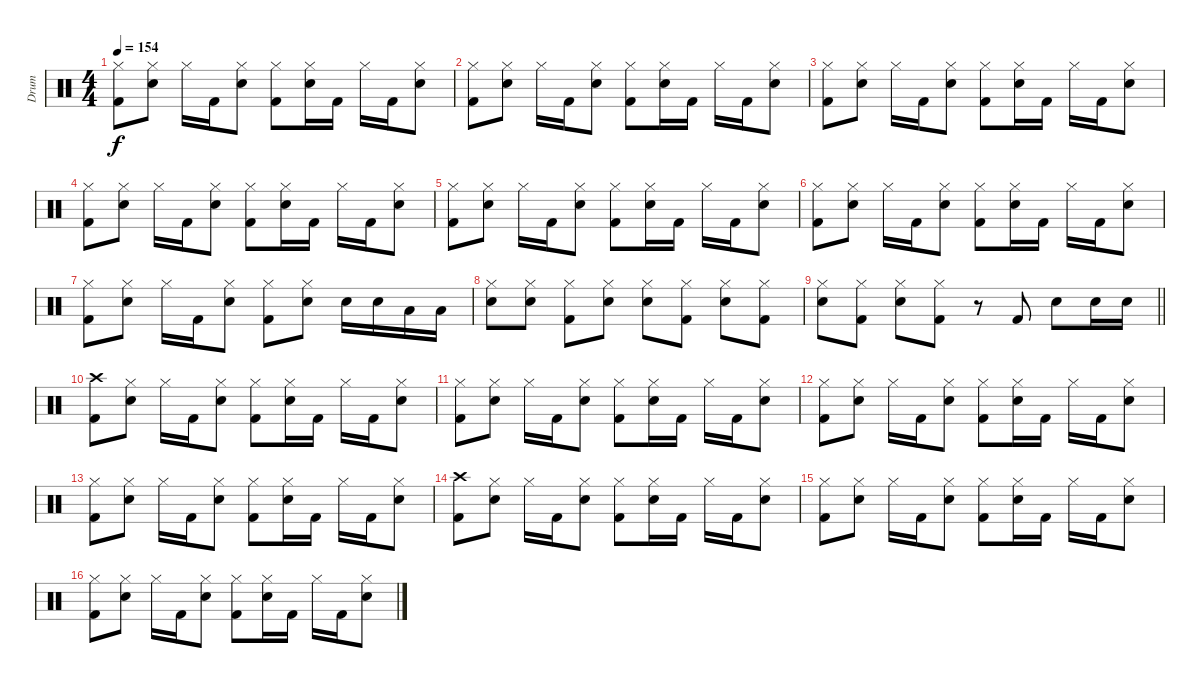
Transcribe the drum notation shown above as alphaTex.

\track ("Drum" "Drum") {instrument percussion}
\staff {score}
\articulation defaults
\ts (4 4)
\tempo 154
\clef neutral
\ks c
("Hi-Hat (closed)" "Kick (hit) 2").8{dy f} ("Hi-Hat (closed)" "Snare (hit) 2").8 "Hi-Hat (closed)".16 "Kick (hit) 2".16 ("Hi-Hat (closed)" "Snare (hit) 2").8 ("Hi-Hat (closed)" "Kick (hit) 2").8 ("Hi-Hat (closed)" "Snare (hit) 2").16 "Kick (hit) 2".16 "Hi-Hat (closed)".16 "Kick (hit) 2".16 ("Hi-Hat (closed)" "Snare (hit) 2").8 |
("Hi-Hat (closed)" "Kick (hit) 2").8 ("Hi-Hat (closed)" "Snare (hit) 2").8 "Hi-Hat (closed)".16 "Kick (hit) 2".16 ("Hi-Hat (closed)" "Snare (hit) 2").8 ("Hi-Hat (closed)" "Kick (hit) 2").8 ("Hi-Hat (closed)" "Snare (hit) 2").16 "Kick (hit) 2".16 "Hi-Hat (closed)".16 "Kick (hit) 2".16 ("Hi-Hat (closed)" "Snare (hit) 2").8 |
("Hi-Hat (closed)" "Kick (hit) 2").8 ("Hi-Hat (closed)" "Snare (hit) 2").8 "Hi-Hat (closed)".16 "Kick (hit) 2".16 ("Hi-Hat (closed)" "Snare (hit) 2").8 ("Hi-Hat (closed)" "Kick (hit) 2").8 ("Hi-Hat (closed)" "Snare (hit) 2").16 "Kick (hit) 2".16 "Hi-Hat (closed)".16 "Kick (hit) 2".16 ("Hi-Hat (closed)" "Snare (hit) 2").8 |
("Hi-Hat (closed)" "Kick (hit) 2").8 ("Hi-Hat (closed)" "Snare (hit) 2").8 "Hi-Hat (closed)".16 "Kick (hit) 2".16 ("Hi-Hat (closed)" "Snare (hit) 2").8 ("Hi-Hat (closed)" "Kick (hit) 2").8 ("Hi-Hat (closed)" "Snare (hit) 2").16 "Kick (hit) 2".16 "Hi-Hat (closed)".16 "Kick (hit) 2".16 ("Hi-Hat (closed)" "Snare (hit) 2").8 |
("Hi-Hat (closed)" "Kick (hit) 2").8 ("Hi-Hat (closed)" "Snare (hit) 2").8 "Hi-Hat (closed)".16 "Kick (hit) 2".16 ("Hi-Hat (closed)" "Snare (hit) 2").8 ("Hi-Hat (closed)" "Kick (hit) 2").8 ("Hi-Hat (closed)" "Snare (hit) 2").16 "Kick (hit) 2".16 "Hi-Hat (closed)".16 "Kick (hit) 2".16 ("Hi-Hat (closed)" "Snare (hit) 2").8 |
("Hi-Hat (closed)" "Kick (hit) 2").8 ("Hi-Hat (closed)" "Snare (hit) 2").8 "Hi-Hat (closed)".16 "Kick (hit) 2".16 ("Hi-Hat (closed)" "Snare (hit) 2").8 ("Hi-Hat (closed)" "Kick (hit) 2").8 ("Hi-Hat (closed)" "Snare (hit) 2").16 "Kick (hit) 2".16 "Hi-Hat (closed)".16 "Kick (hit) 2".16 ("Hi-Hat (closed)" "Snare (hit) 2").8 |
("Hi-Hat (closed)" "Kick (hit) 2").8 ("Hi-Hat (closed)" "Snare (hit) 2").8 "Hi-Hat (closed)".16 "Kick (hit) 2".16 ("Hi-Hat (closed)" "Snare (hit) 2").8 ("Hi-Hat (closed)" "Kick (hit) 2").8 ("Hi-Hat (closed)" "Snare (hit) 2").8 "Snare (hit) 2".16 "Snare (hit) 2".16 "Low Tom (hit)".16 "Low Tom (hit)".16 |
("Hi-Hat (closed)" "Snare (hit) 2").8 ("Hi-Hat (closed)" "Snare (hit) 2").8 ("Hi-Hat (closed)" "Kick (hit) 2").8 ("Hi-Hat (closed)" "Snare (hit) 2").8 ("Hi-Hat (closed)" "Snare (hit) 2").8 ("Hi-Hat (closed)" "Kick (hit) 2").8 ("Hi-Hat (closed)" "Snare (hit) 2").8 ("Hi-Hat (closed)" "Kick (hit) 2").8 |
\barLineRight lightlight
("Hi-Hat (closed)" "Snare (hit) 2").8 ("Hi-Hat (closed)" "Kick (hit) 2").8 ("Hi-Hat (closed)" "Snare (hit) 2").8 ("Hi-Hat (closed)" "Kick (hit) 2").8 r.8 "Kick (hit) 2".8 "Snare (hit) 2".8 "Snare (hit) 2".16 "Snare (hit) 2".16 |
("Crash high (hit)" "Kick (hit) 2").8 ("Hi-Hat (closed)" "Snare (hit) 2").8 "Hi-Hat (closed)".16 "Kick (hit) 2".16 ("Hi-Hat (closed)" "Snare (hit) 2").8 ("Hi-Hat (closed)" "Kick (hit) 2").8 ("Hi-Hat (closed)" "Snare (hit) 2").16 "Kick (hit) 2".16 "Hi-Hat (closed)".16 "Kick (hit) 2".16 ("Hi-Hat (closed)" "Snare (hit) 2").8 |
("Hi-Hat (closed)" "Kick (hit) 2").8 ("Hi-Hat (closed)" "Snare (hit) 2").8 "Hi-Hat (closed)".16 "Kick (hit) 2".16 ("Hi-Hat (closed)" "Snare (hit) 2").8 ("Hi-Hat (closed)" "Kick (hit) 2").8 ("Hi-Hat (closed)" "Snare (hit) 2").16 "Kick (hit) 2".16 "Hi-Hat (closed)".16 "Kick (hit) 2".16 ("Hi-Hat (closed)" "Snare (hit) 2").8 |
("Hi-Hat (closed)" "Kick (hit) 2").8 ("Hi-Hat (closed)" "Snare (hit) 2").8 "Hi-Hat (closed)".16 "Kick (hit) 2".16 ("Hi-Hat (closed)" "Snare (hit) 2").8 ("Hi-Hat (closed)" "Kick (hit) 2").8 ("Hi-Hat (closed)" "Snare (hit) 2").16 "Kick (hit) 2".16 "Hi-Hat (closed)".16 "Kick (hit) 2".16 ("Hi-Hat (closed)" "Snare (hit) 2").8 |
("Hi-Hat (closed)" "Kick (hit) 2").8 ("Hi-Hat (closed)" "Snare (hit) 2").8 "Hi-Hat (closed)".16 "Kick (hit) 2".16 ("Hi-Hat (closed)" "Snare (hit) 2").8 ("Hi-Hat (closed)" "Kick (hit) 2").8 ("Hi-Hat (closed)" "Snare (hit) 2").16 "Kick (hit) 2".16 "Hi-Hat (closed)".16 "Kick (hit) 2".16 ("Hi-Hat (closed)" "Snare (hit) 2").8 |
("Crash high (hit)" "Kick (hit) 2").8 ("Hi-Hat (closed)" "Snare (hit) 2").8 "Hi-Hat (closed)".16 "Kick (hit) 2".16 ("Hi-Hat (closed)" "Snare (hit) 2").8 ("Hi-Hat (closed)" "Kick (hit) 2").8 ("Hi-Hat (closed)" "Snare (hit) 2").16 "Kick (hit) 2".16 "Hi-Hat (closed)".16 "Kick (hit) 2".16 ("Hi-Hat (closed)" "Snare (hit) 2").8 |
("Hi-Hat (closed)" "Kick (hit) 2").8 ("Hi-Hat (closed)" "Snare (hit) 2").8 "Hi-Hat (closed)".16 "Kick (hit) 2".16 ("Hi-Hat (closed)" "Snare (hit) 2").8 ("Hi-Hat (closed)" "Kick (hit) 2").8 ("Hi-Hat (closed)" "Snare (hit) 2").16 "Kick (hit) 2".16 "Hi-Hat (closed)".16 "Kick (hit) 2".16 ("Hi-Hat (closed)" "Snare (hit) 2").8 |
("Hi-Hat (closed)" "Kick (hit) 2").8 ("Hi-Hat (closed)" "Snare (hit) 2").8 "Hi-Hat (closed)".16 "Kick (hit) 2".16 ("Hi-Hat (closed)" "Snare (hit) 2").8 ("Hi-Hat (closed)" "Kick (hit) 2").8 ("Hi-Hat (closed)" "Snare (hit) 2").16 "Kick (hit) 2".16 "Hi-Hat (closed)".16 "Kick (hit) 2".16 ("Hi-Hat (closed)" "Snare (hit) 2").8
